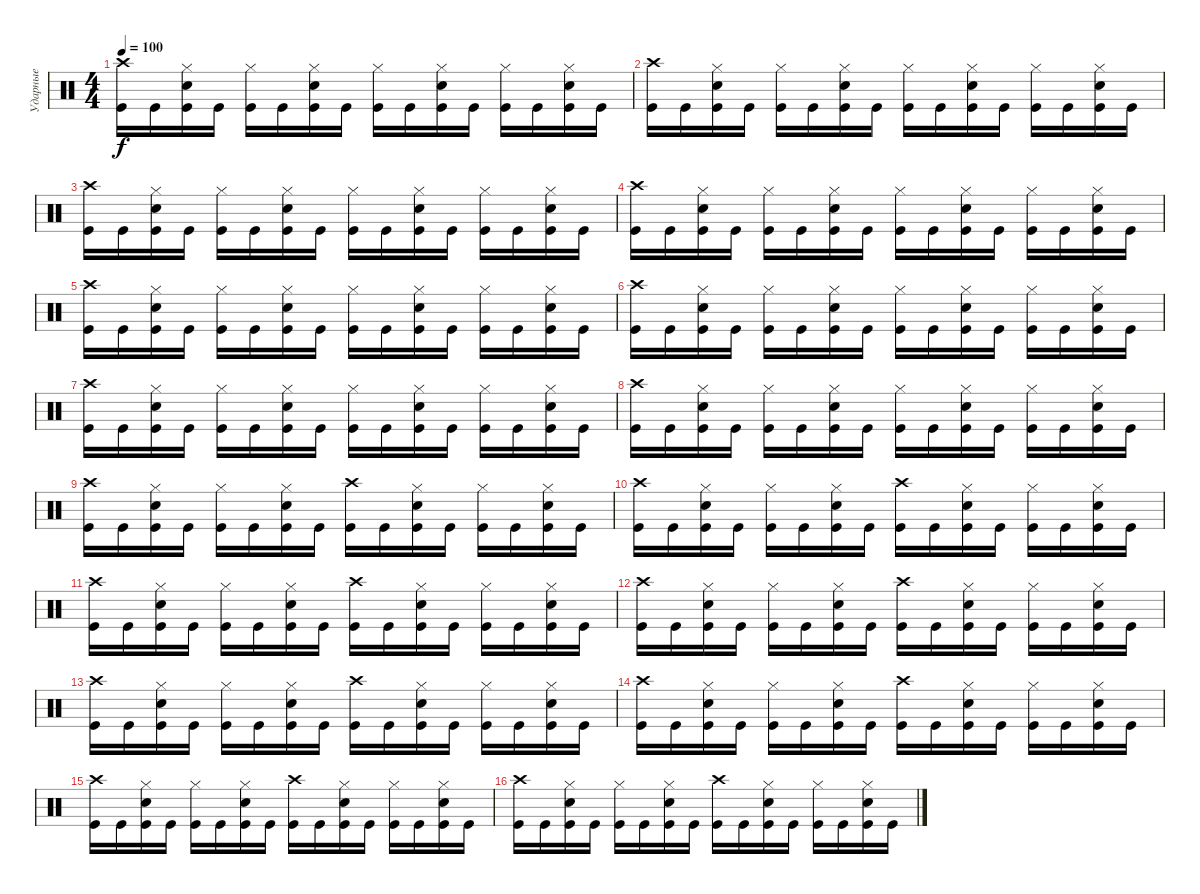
\track ("Ударные" "Ударные") {instrument percussion}
\staff {score}
\articulation defaults
\ts (4 4)
\tempo 100
\clef neutral
\ks c
("Kick (hit)" "Crash high (hit)").16{dy f} "Kick (hit)".16 ("Kick (hit)" "Hi-Hat (closed)" "Snare (hit) 2").16 "Kick (hit)".16 ("Kick (hit)" "Hi-Hat (closed)").16 "Kick (hit)".16 ("Kick (hit)" "Hi-Hat (closed)" "Snare (hit) 2").16 "Kick (hit)".16 ("Kick (hit)" "Hi-Hat (closed)").16 "Kick (hit)".16 ("Kick (hit)" "Hi-Hat (closed)" "Snare (hit) 2").16 "Kick (hit)".16 ("Kick (hit)" "Hi-Hat (closed)").16 "Kick (hit)".16 ("Kick (hit)" "Hi-Hat (closed)" "Snare (hit) 2").16 "Kick (hit)".16 |
("Kick (hit)" "Crash high (hit)").16 "Kick (hit)".16 ("Kick (hit)" "Hi-Hat (closed)" "Snare (hit) 2").16 "Kick (hit)".16 ("Kick (hit)" "Hi-Hat (closed)").16 "Kick (hit)".16 ("Kick (hit)" "Hi-Hat (closed)" "Snare (hit) 2").16 "Kick (hit)".16 ("Kick (hit)" "Hi-Hat (closed)").16 "Kick (hit)".16 ("Kick (hit)" "Hi-Hat (closed)" "Snare (hit) 2").16 "Kick (hit)".16 ("Kick (hit)" "Hi-Hat (closed)").16 "Kick (hit)".16 ("Kick (hit)" "Hi-Hat (closed)" "Snare (hit) 2").16 "Kick (hit)".16 |
("Kick (hit)" "Crash high (hit)").16 "Kick (hit)".16 ("Kick (hit)" "Hi-Hat (closed)" "Snare (hit) 2").16 "Kick (hit)".16 ("Kick (hit)" "Hi-Hat (closed)").16 "Kick (hit)".16 ("Kick (hit)" "Hi-Hat (closed)" "Snare (hit) 2").16 "Kick (hit)".16 ("Kick (hit)" "Hi-Hat (closed)").16 "Kick (hit)".16 ("Kick (hit)" "Hi-Hat (closed)" "Snare (hit) 2").16 "Kick (hit)".16 ("Kick (hit)" "Hi-Hat (closed)").16 "Kick (hit)".16 ("Kick (hit)" "Hi-Hat (closed)" "Snare (hit) 2").16 "Kick (hit)".16 |
("Kick (hit)" "Crash high (hit)").16 "Kick (hit)".16 ("Kick (hit)" "Hi-Hat (closed)" "Snare (hit) 2").16 "Kick (hit)".16 ("Kick (hit)" "Hi-Hat (closed)").16 "Kick (hit)".16 ("Kick (hit)" "Hi-Hat (closed)" "Snare (hit) 2").16 "Kick (hit)".16 ("Kick (hit)" "Hi-Hat (closed)").16 "Kick (hit)".16 ("Kick (hit)" "Hi-Hat (closed)" "Snare (hit) 2").16 "Kick (hit)".16 ("Kick (hit)" "Hi-Hat (closed)").16 "Kick (hit)".16 ("Kick (hit)" "Hi-Hat (closed)" "Snare (hit) 2").16 "Kick (hit)".16 |
("Kick (hit)" "Crash high (hit)").16 "Kick (hit)".16 ("Kick (hit)" "Hi-Hat (closed)" "Snare (hit) 2").16 "Kick (hit)".16 ("Kick (hit)" "Hi-Hat (closed)").16 "Kick (hit)".16 ("Kick (hit)" "Hi-Hat (closed)" "Snare (hit) 2").16 "Kick (hit)".16 ("Kick (hit)" "Hi-Hat (closed)").16 "Kick (hit)".16 ("Kick (hit)" "Hi-Hat (closed)" "Snare (hit) 2").16 "Kick (hit)".16 ("Kick (hit)" "Hi-Hat (closed)").16 "Kick (hit)".16 ("Kick (hit)" "Hi-Hat (closed)" "Snare (hit) 2").16 "Kick (hit)".16 |
("Kick (hit)" "Crash high (hit)").16 "Kick (hit)".16 ("Kick (hit)" "Hi-Hat (closed)" "Snare (hit) 2").16 "Kick (hit)".16 ("Kick (hit)" "Hi-Hat (closed)").16 "Kick (hit)".16 ("Kick (hit)" "Hi-Hat (closed)" "Snare (hit) 2").16 "Kick (hit)".16 ("Kick (hit)" "Hi-Hat (closed)").16 "Kick (hit)".16 ("Kick (hit)" "Hi-Hat (closed)" "Snare (hit) 2").16 "Kick (hit)".16 ("Kick (hit)" "Hi-Hat (closed)").16 "Kick (hit)".16 ("Kick (hit)" "Hi-Hat (closed)" "Snare (hit) 2").16 "Kick (hit)".16 |
("Kick (hit)" "Crash high (hit)").16 "Kick (hit)".16 ("Kick (hit)" "Hi-Hat (closed)" "Snare (hit) 2").16 "Kick (hit)".16 ("Kick (hit)" "Hi-Hat (closed)").16 "Kick (hit)".16 ("Kick (hit)" "Hi-Hat (closed)" "Snare (hit) 2").16 "Kick (hit)".16 ("Kick (hit)" "Hi-Hat (closed)").16 "Kick (hit)".16 ("Kick (hit)" "Hi-Hat (closed)" "Snare (hit) 2").16 "Kick (hit)".16 ("Kick (hit)" "Hi-Hat (closed)").16 "Kick (hit)".16 ("Kick (hit)" "Hi-Hat (closed)" "Snare (hit) 2").16 "Kick (hit)".16 |
("Kick (hit)" "Crash high (hit)").16 "Kick (hit)".16 ("Kick (hit)" "Hi-Hat (closed)" "Snare (hit) 2").16 "Kick (hit)".16 ("Kick (hit)" "Hi-Hat (closed)").16 "Kick (hit)".16 ("Kick (hit)" "Hi-Hat (closed)" "Snare (hit) 2").16 "Kick (hit)".16 ("Kick (hit)" "Hi-Hat (closed)").16 "Kick (hit)".16 ("Kick (hit)" "Hi-Hat (closed)" "Snare (hit) 2").16 "Kick (hit)".16 ("Kick (hit)" "Hi-Hat (closed)").16 "Kick (hit)".16 ("Kick (hit)" "Hi-Hat (closed)" "Snare (hit) 2").16 "Kick (hit)".16 |
("Kick (hit)" "Crash high (hit)").16 "Kick (hit)".16 ("Kick (hit)" "Hi-Hat (closed)" "Snare (hit) 2").16 "Kick (hit)".16 ("Kick (hit)" "Hi-Hat (closed)").16 "Kick (hit)".16 ("Kick (hit)" "Hi-Hat (closed)" "Snare (hit) 2").16 "Kick (hit)".16 ("Kick (hit)" "Crash high (hit)").16 "Kick (hit)".16 ("Kick (hit)" "Hi-Hat (closed)" "Snare (hit) 2").16 "Kick (hit)".16 ("Kick (hit)" "Hi-Hat (closed)").16 "Kick (hit)".16 ("Kick (hit)" "Hi-Hat (closed)" "Snare (hit) 2").16 "Kick (hit)".16 |
("Kick (hit)" "Crash high (hit)").16 "Kick (hit)".16 ("Kick (hit)" "Hi-Hat (closed)" "Snare (hit) 2").16 "Kick (hit)".16 ("Kick (hit)" "Hi-Hat (closed)").16 "Kick (hit)".16 ("Kick (hit)" "Hi-Hat (closed)" "Snare (hit) 2").16 "Kick (hit)".16 ("Kick (hit)" "Crash high (hit)").16 "Kick (hit)".16 ("Kick (hit)" "Hi-Hat (closed)" "Snare (hit) 2").16 "Kick (hit)".16 ("Kick (hit)" "Hi-Hat (closed)").16 "Kick (hit)".16 ("Kick (hit)" "Hi-Hat (closed)" "Snare (hit) 2").16 "Kick (hit)".16 |
("Kick (hit)" "Crash high (hit)").16 "Kick (hit)".16 ("Kick (hit)" "Hi-Hat (closed)" "Snare (hit) 2").16 "Kick (hit)".16 ("Kick (hit)" "Hi-Hat (closed)").16 "Kick (hit)".16 ("Kick (hit)" "Hi-Hat (closed)" "Snare (hit) 2").16 "Kick (hit)".16 ("Kick (hit)" "Crash high (hit)").16 "Kick (hit)".16 ("Kick (hit)" "Hi-Hat (closed)" "Snare (hit) 2").16 "Kick (hit)".16 ("Kick (hit)" "Hi-Hat (closed)").16 "Kick (hit)".16 ("Kick (hit)" "Hi-Hat (closed)" "Snare (hit) 2").16 "Kick (hit)".16 |
("Kick (hit)" "Crash high (hit)").16 "Kick (hit)".16 ("Kick (hit)" "Hi-Hat (closed)" "Snare (hit) 2").16 "Kick (hit)".16 ("Kick (hit)" "Hi-Hat (closed)").16 "Kick (hit)".16 ("Kick (hit)" "Hi-Hat (closed)" "Snare (hit) 2").16 "Kick (hit)".16 ("Kick (hit)" "Crash high (hit)").16 "Kick (hit)".16 ("Kick (hit)" "Hi-Hat (closed)" "Snare (hit) 2").16 "Kick (hit)".16 ("Kick (hit)" "Hi-Hat (closed)").16 "Kick (hit)".16 ("Kick (hit)" "Hi-Hat (closed)" "Snare (hit) 2").16 "Kick (hit)".16 |
("Kick (hit)" "Crash high (hit)").16 "Kick (hit)".16 ("Kick (hit)" "Hi-Hat (closed)" "Snare (hit) 2").16 "Kick (hit)".16 ("Kick (hit)" "Hi-Hat (closed)").16 "Kick (hit)".16 ("Kick (hit)" "Hi-Hat (closed)" "Snare (hit) 2").16 "Kick (hit)".16 ("Kick (hit)" "Crash high (hit)").16 "Kick (hit)".16 ("Kick (hit)" "Hi-Hat (closed)" "Snare (hit) 2").16 "Kick (hit)".16 ("Kick (hit)" "Hi-Hat (closed)").16 "Kick (hit)".16 ("Kick (hit)" "Hi-Hat (closed)" "Snare (hit) 2").16 "Kick (hit)".16 |
("Kick (hit)" "Crash high (hit)").16 "Kick (hit)".16 ("Kick (hit)" "Hi-Hat (closed)" "Snare (hit) 2").16 "Kick (hit)".16 ("Kick (hit)" "Hi-Hat (closed)").16 "Kick (hit)".16 ("Kick (hit)" "Hi-Hat (closed)" "Snare (hit) 2").16 "Kick (hit)".16 ("Kick (hit)" "Crash high (hit)").16 "Kick (hit)".16 ("Kick (hit)" "Hi-Hat (closed)" "Snare (hit) 2").16 "Kick (hit)".16 ("Kick (hit)" "Hi-Hat (closed)").16 "Kick (hit)".16 ("Kick (hit)" "Hi-Hat (closed)" "Snare (hit) 2").16 "Kick (hit)".16 |
("Kick (hit)" "Crash high (hit)").16 "Kick (hit)".16 ("Kick (hit)" "Hi-Hat (closed)" "Snare (hit) 2").16 "Kick (hit)".16 ("Kick (hit)" "Hi-Hat (closed)").16 "Kick (hit)".16 ("Kick (hit)" "Hi-Hat (closed)" "Snare (hit) 2").16 "Kick (hit)".16 ("Kick (hit)" "Crash high (hit)").16 "Kick (hit)".16 ("Kick (hit)" "Hi-Hat (closed)" "Snare (hit) 2").16 "Kick (hit)".16 ("Kick (hit)" "Hi-Hat (closed)").16 "Kick (hit)".16 ("Kick (hit)" "Hi-Hat (closed)" "Snare (hit) 2").16 "Kick (hit)".16 |
("Kick (hit)" "Crash high (hit)").16 "Kick (hit)".16 ("Kick (hit)" "Hi-Hat (closed)" "Snare (hit) 2").16 "Kick (hit)".16 ("Kick (hit)" "Hi-Hat (closed)").16 "Kick (hit)".16 ("Kick (hit)" "Hi-Hat (closed)" "Snare (hit) 2").16 "Kick (hit)".16 ("Kick (hit)" "Crash high (hit)").16 "Kick (hit)".16 ("Kick (hit)" "Hi-Hat (closed)" "Snare (hit) 2").16 "Kick (hit)".16 ("Kick (hit)" "Hi-Hat (closed)").16 "Kick (hit)".16 ("Kick (hit)" "Hi-Hat (closed)" "Snare (hit) 2").16 "Kick (hit)".16
